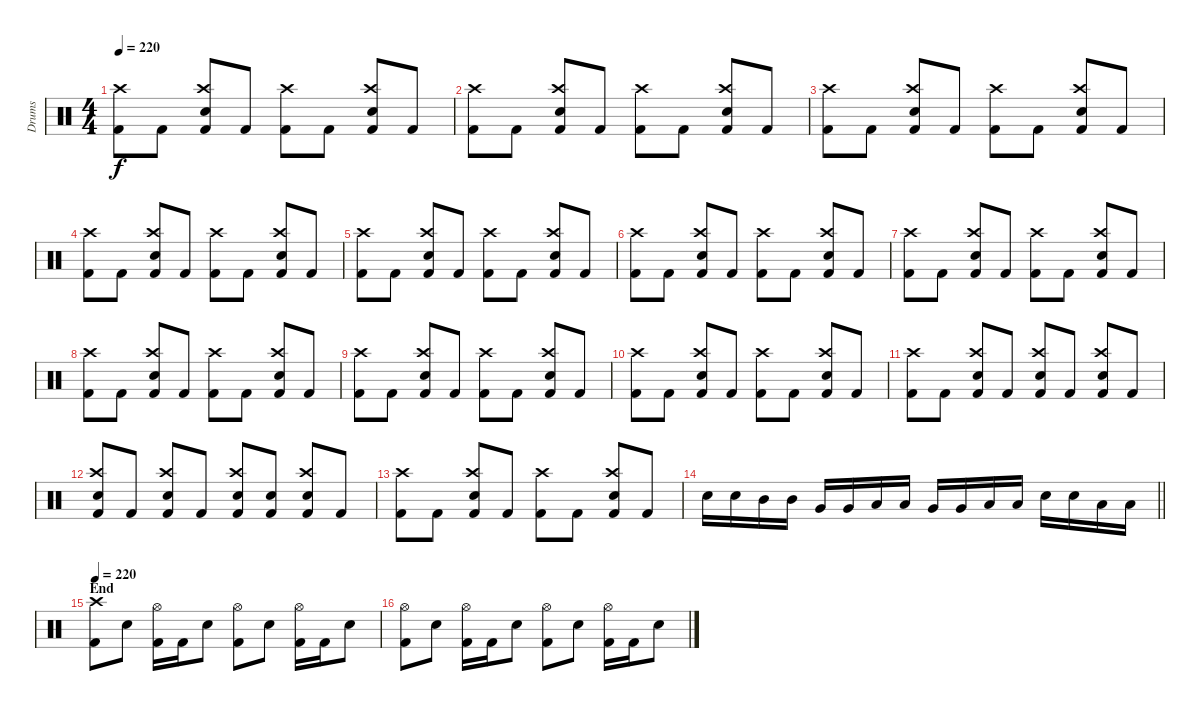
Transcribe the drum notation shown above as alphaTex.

\track ("Drums" "Drums") {instrument percussion}
\staff {score}
\articulation defaults
\ts (4 4)
\tempo 220
\clef neutral
\ks c
("Kick (hit) 2" "Crash high (hit)").8{dy f} "Kick (hit) 2".8 ("Kick (hit) 2" "Crash high (hit)" "Electric Snare (hit)").8 "Kick (hit) 2".8 ("Kick (hit) 2" "Crash high (hit)").8 "Kick (hit) 2".8 ("Kick (hit) 2" "Crash high (hit)" "Electric Snare (hit)").8 "Kick (hit) 2".8 |
("Kick (hit) 2" "Crash high (hit)").8 "Kick (hit) 2".8 ("Kick (hit) 2" "Crash high (hit)" "Electric Snare (hit)").8 "Kick (hit) 2".8 ("Kick (hit) 2" "Crash high (hit)").8 "Kick (hit) 2".8 ("Kick (hit) 2" "Crash high (hit)" "Electric Snare (hit)").8 "Kick (hit) 2".8 |
("Kick (hit) 2" "Crash high (hit)").8 "Kick (hit) 2".8 ("Kick (hit) 2" "Crash high (hit)" "Electric Snare (hit)").8 "Kick (hit) 2".8 ("Kick (hit) 2" "Crash high (hit)").8 "Kick (hit) 2".8 ("Kick (hit) 2" "Crash high (hit)" "Electric Snare (hit)").8 "Kick (hit) 2".8 |
("Kick (hit) 2" "Crash high (hit)").8 "Kick (hit) 2".8 ("Kick (hit) 2" "Crash high (hit)" "Electric Snare (hit)").8 "Kick (hit) 2".8 ("Kick (hit) 2" "Crash high (hit)").8 "Kick (hit) 2".8 ("Kick (hit) 2" "Crash high (hit)" "Electric Snare (hit)").8 "Kick (hit) 2".8 |
("Kick (hit) 2" "Crash high (hit)").8 "Kick (hit) 2".8 ("Kick (hit) 2" "Crash high (hit)" "Electric Snare (hit)").8 "Kick (hit) 2".8 ("Kick (hit) 2" "Crash high (hit)").8 "Kick (hit) 2".8 ("Kick (hit) 2" "Crash high (hit)" "Electric Snare (hit)").8 "Kick (hit) 2".8 |
("Kick (hit) 2" "Crash high (hit)").8 "Kick (hit) 2".8 ("Kick (hit) 2" "Crash high (hit)" "Electric Snare (hit)").8 "Kick (hit) 2".8 ("Kick (hit) 2" "Crash high (hit)").8 "Kick (hit) 2".8 ("Kick (hit) 2" "Crash high (hit)" "Electric Snare (hit)").8 "Kick (hit) 2".8 |
("Kick (hit) 2" "Crash high (hit)").8 "Kick (hit) 2".8 ("Kick (hit) 2" "Crash high (hit)" "Electric Snare (hit)").8 "Kick (hit) 2".8 ("Kick (hit) 2" "Crash high (hit)").8 "Kick (hit) 2".8 ("Kick (hit) 2" "Crash high (hit)" "Electric Snare (hit)").8 "Kick (hit) 2".8 |
("Kick (hit) 2" "Crash high (hit)").8 "Kick (hit) 2".8 ("Kick (hit) 2" "Crash high (hit)" "Electric Snare (hit)").8 "Kick (hit) 2".8 ("Kick (hit) 2" "Crash high (hit)").8 "Kick (hit) 2".8 ("Kick (hit) 2" "Crash high (hit)" "Electric Snare (hit)").8 "Kick (hit) 2".8 |
("Kick (hit) 2" "Crash high (hit)").8 "Kick (hit) 2".8 ("Kick (hit) 2" "Crash high (hit)" "Electric Snare (hit)").8 "Kick (hit) 2".8 ("Kick (hit) 2" "Crash high (hit)").8 "Kick (hit) 2".8 ("Kick (hit) 2" "Crash high (hit)" "Electric Snare (hit)").8 "Kick (hit) 2".8 |
("Kick (hit) 2" "Crash high (hit)").8 "Kick (hit) 2".8 ("Kick (hit) 2" "Crash high (hit)" "Electric Snare (hit)").8 "Kick (hit) 2".8 ("Kick (hit) 2" "Crash high (hit)").8 "Kick (hit) 2".8 ("Kick (hit) 2" "Crash high (hit)" "Electric Snare (hit)").8 "Kick (hit) 2".8 |
("Kick (hit) 2" "Crash high (hit)").8 "Kick (hit) 2".8 ("Kick (hit) 2" "Electric Snare (hit)" "Crash high (hit)").8 "Kick (hit) 2".8 ("Kick (hit) 2" "Electric Snare (hit)" "Crash high (hit)").8 "Kick (hit) 2".8 ("Kick (hit) 2" "Electric Snare (hit)" "Crash high (hit)").8 "Kick (hit) 2".8 |
("Kick (hit) 2" "Crash high (hit)" "Electric Snare (hit)").8 "Kick (hit) 2".8 ("Kick (hit) 2" "Electric Snare (hit)" "Crash high (hit)").8 "Kick (hit) 2".8 ("Kick (hit) 2" "Electric Snare (hit)" "Crash high (hit)").8 ("Kick (hit) 2" "Electric Snare (hit)").8 ("Kick (hit) 2" "Electric Snare (hit)" "Crash high (hit)").8 "Kick (hit) 2".8 |
("Kick (hit) 2" "Crash high (hit)").8 "Kick (hit) 2".8 ("Electric Snare (hit)" "Crash high (hit)" "Kick (hit) 2").8 "Kick (hit) 2".8 ("Crash high (hit)" "Kick (hit) 2").8 "Kick (hit) 2".8 ("Crash high (hit)" "Kick (hit) 2" "Electric Snare (hit)").8 "Kick (hit) 2".8 |
\barLineRight lightlight "Electric Snare (hit)".16 "Electric Snare (hit)".16 "Mid Tom (hit)".16 "Mid Tom (hit)".16 "Very Low Tom (hit)".16 "Very Low Tom (hit)".16 "Low Tom (hit)".16 "Low Tom (hit)".16 "Very Low Tom (hit)".16 "Very Low Tom (hit)".16 "Low Tom (hit)".16 "Low Tom (hit)".16 "Electric Snare (hit)".16 "Electric Snare (hit)".16 "Low Floor Tom (hit)".16 "Low Floor Tom (hit)".16
|
\section ("" "End")
\tempo 220
("Crash high (hit)" "Kick (hit) 2").8 "Electric Snare (hit)".8 ("Hi-Hat (open)" "Kick (hit) 2").16 "Kick (hit) 2".16 "Electric Snare (hit)".8 ("Hi-Hat (open)" "Kick (hit) 2").8 "Electric Snare (hit)".8 ("Hi-Hat (open)" "Kick (hit) 2").16 "Kick (hit) 2".16 "Electric Snare (hit)".8 |
("Hi-Hat (open)" "Kick (hit) 2").8 "Electric Snare (hit)".8 ("Hi-Hat (open)" "Kick (hit) 2").16 "Kick (hit) 2".16 "Electric Snare (hit)".8 ("Hi-Hat (open)" "Kick (hit) 2").8 "Electric Snare (hit)".8 ("Hi-Hat (open)" "Kick (hit) 2").16 "Kick (hit) 2".16 "Electric Snare (hit)".8
